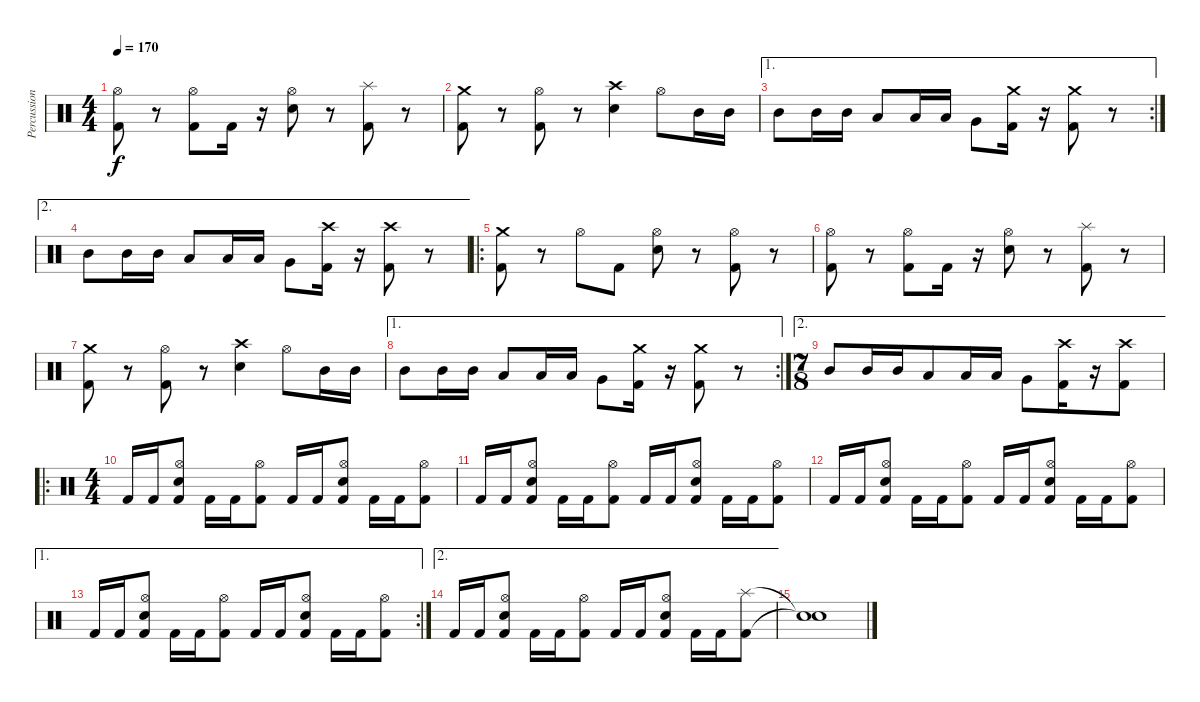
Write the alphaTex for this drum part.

\track ("Percussions" "Percussion") {instrument percussion}
\staff {score}
\articulation defaults
\ts (4 4)
\tempo 170
\clef neutral
\ks c
("Kick (hit) 2" "Hi-Hat (open)").8{dy f} r.8 ("Kick (hit) 2" "Hi-Hat (open)").8 "Kick (hit) 2".16 r.16 ("Snare (hit) 2" "Hi-Hat (open)").8 r.8 ("Kick (hit) 2" "Splash (hit)").8 r.8 |
("Kick (hit) 2" "Crash medium (hit)").8 r.8 ("Kick (hit) 2" "Hi-Hat (open)").8 r.8 ("Snare (hit) 2" "Crash high (hit)").4 "Hi-Hat (open)".8 "Mid Tom (hit)".16 "Mid Tom (hit)".16 |
\ae 1
\rc 2 "Mid Tom (hit)".8 "Mid Tom (hit)".16 "Mid Tom (hit)".16 "Low Tom (hit)".8 "Low Tom (hit)".16 "Low Tom (hit)".16 "Very Low Tom (hit)".8
("Kick (hit) 2" "Crash medium (hit)").16 r.16 ("Kick (hit) 2" "Crash medium (hit)").8 r.8 |
\ae 2 "Mid Tom (hit)".8 "Mid Tom (hit)".16 "Mid Tom (hit)".16 "Low Tom (hit)".8 "Low Tom (hit)".16 "Low Tom (hit)".16 "Very Low Tom (hit)".8
("Kick (hit) 2" "Crash high (hit)").16 r.16 ("Kick (hit) 2" "Crash high (hit)").8 r.8 |
\ro
("Kick (hit) 2" "Crash medium (hit)").8 r.8 "Hi-Hat (open)".8 "Kick (hit) 2".8 ("Snare (hit) 2" "Hi-Hat (open)").8 r.8 ("Kick (hit) 2" "Hi-Hat (open)").8 r.8 |
("Kick (hit) 2" "Hi-Hat (open)").8 r.8 ("Kick (hit) 2" "Hi-Hat (open)").8 "Kick (hit) 2".16 r.16 ("Snare (hit) 2" "Hi-Hat (open)").8 r.8 ("Kick (hit) 2" "Splash (hit)").8 r.8 |
("Kick (hit) 2" "Crash medium (hit)").8 r.8 ("Kick (hit) 2" "Hi-Hat (open)").8 r.8 ("Snare (hit) 2" "Crash high (hit)").4 "Hi-Hat (open)".8 "Mid Tom (hit)".16 "Mid Tom (hit)".16 |
\ae 1
\rc 2 "Mid Tom (hit)".8 "Mid Tom (hit)".16 "Mid Tom (hit)".16 "Low Tom (hit)".8 "Low Tom (hit)".16 "Low Tom (hit)".16 "Very Low Tom (hit)".8
("Kick (hit) 2" "Crash medium (hit)").16 r.16 ("Kick (hit) 2" "Crash medium (hit)").8 r.8 |
\ae 2
\ts (7 8)
"Mid Tom (hit)".8 "Mid Tom (hit)".16 "Mid Tom (hit)".16 "Low Tom (hit)".8 "Low Tom (hit)".16 "Low Tom (hit)".16 "Very Low Tom (hit)".8 ("Kick (hit) 2" "Crash high (hit)").16 r.16 ("Kick (hit) 2" "Crash high (hit)").8 |
\ro
\ts (4 4)
"Kick (hit) 2".16 "Kick (hit) 2".16 ("Kick (hit) 2" "Hi-Hat (open)" "Snare (hit) 2").8 "Kick (hit) 2".16 "Kick (hit) 2".16 ("Kick (hit) 2" "Hi-Hat (open)").8 "Kick (hit) 2".16 "Kick (hit) 2".16 ("Kick (hit) 2" "Hi-Hat (open)" "Snare (hit) 2").8 "Kick (hit) 2".16 "Kick (hit) 2".16 ("Kick (hit) 2" "Hi-Hat (open)").8 |
"Kick (hit) 2".16 "Kick (hit) 2".16 ("Kick (hit) 2" "Hi-Hat (open)" "Snare (hit) 2").8 "Kick (hit) 2".16 "Kick (hit) 2".16 ("Kick (hit) 2" "Hi-Hat (open)").8 "Kick (hit) 2".16 "Kick (hit) 2".16 ("Kick (hit) 2" "Hi-Hat (open)" "Snare (hit) 2").8 "Kick (hit) 2".16 "Kick (hit) 2".16 ("Kick (hit) 2" "Hi-Hat (open)").8 |
"Kick (hit) 2".16 "Kick (hit) 2".16 ("Kick (hit) 2" "Hi-Hat (open)" "Snare (hit) 2").8 "Kick (hit) 2".16 "Kick (hit) 2".16 ("Kick (hit) 2" "Hi-Hat (open)").8 "Kick (hit) 2".16 "Kick (hit) 2".16 ("Kick (hit) 2" "Hi-Hat (open)" "Snare (hit) 2").8 "Kick (hit) 2".16 "Kick (hit) 2".16 ("Kick (hit) 2" "Hi-Hat (open)").8 |
\ae 1
\rc 2 "Kick (hit) 2".16 "Kick (hit) 2".16
("Kick (hit) 2" "Hi-Hat (open)" "Snare (hit) 2").8 "Kick (hit) 2".16 "Kick (hit) 2".16 ("Kick (hit) 2" "Hi-Hat (open)").8 "Kick (hit) 2".16 "Kick (hit) 2".16 ("Kick (hit) 2" "Hi-Hat (open)" "Snare (hit) 2").8 "Kick (hit) 2".16 "Kick (hit) 2".16 ("Kick (hit) 2" "Hi-Hat (open)").8 |
\ae 2 "Kick (hit) 2".16 "Kick (hit) 2".16
("Kick (hit) 2" "Hi-Hat (open)" "Snare (hit) 2").8 "Kick (hit) 2".16 "Kick (hit) 2".16 ("Kick (hit) 2" "Hi-Hat (open)").8 "Kick (hit) 2".16 "Kick (hit) 2".16 ("Kick (hit) 2" "Hi-Hat (open)" "Snare (hit) 2").8 "Kick (hit) 2".16 "Kick (hit) 2".16 ("Kick (hit) 2" "Splash (hit)").8 |
("Snare (hit)"{t} "Snare (hit)"{t}).1
